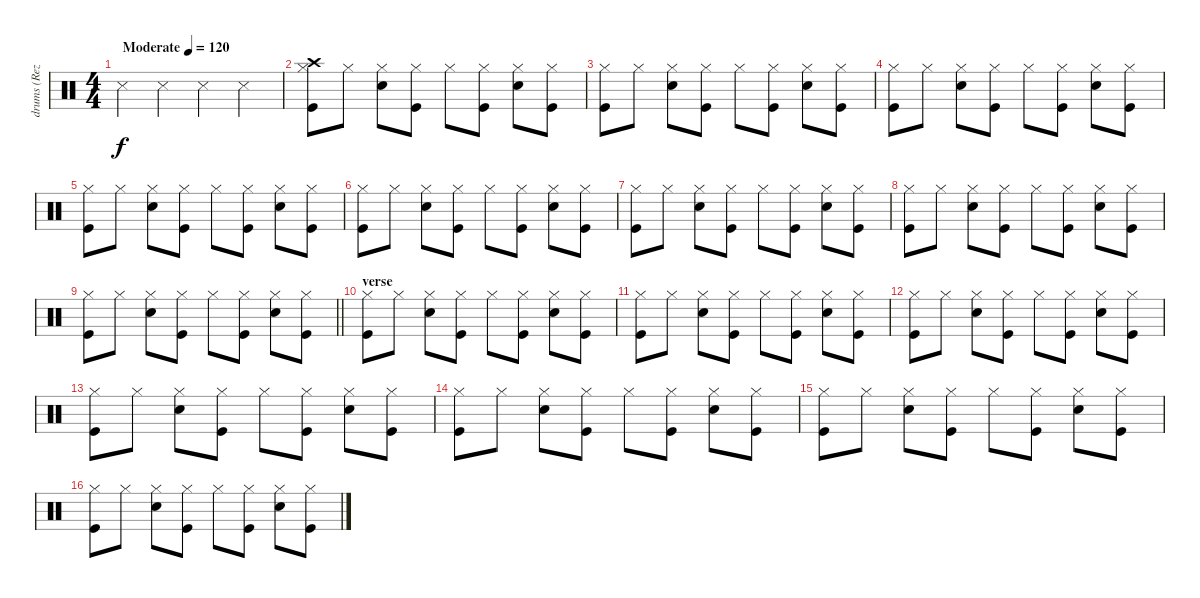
\track ("drums (Reza)" "drums (Rez") {instrument percussion}
\staff {score}
\articulation defaults
\ts (4 4)
\tempo (120 "Moderate")
\clef neutral
\ks c "Snare (side stick) 3".4{dy f} "Snare (side stick) 3".4 "Snare (side stick) 3".4 "Snare (side stick) 3".4
|
("Hi-Hat (closed)" "Kick (hit)" "Crash high (hit)").8 "Hi-Hat (closed)".8 ("Hi-Hat (closed)" "Snare (hit) 2").8 ("Hi-Hat (closed)" "Kick (hit)").8 "Hi-Hat (closed)".8 ("Hi-Hat (closed)" "Kick (hit)").8 ("Hi-Hat (closed)" "Snare (hit) 2").8 ("Hi-Hat (closed)" "Kick (hit)").8 |
("Hi-Hat (closed)" "Kick (hit)").8 "Hi-Hat (closed)".8 ("Hi-Hat (closed)" "Snare (hit) 2").8 ("Hi-Hat (closed)" "Kick (hit)").8 "Hi-Hat (closed)".8 ("Hi-Hat (closed)" "Kick (hit)").8 ("Hi-Hat (closed)" "Snare (hit) 2").8 ("Hi-Hat (closed)" "Kick (hit)").8 |
("Hi-Hat (closed)" "Kick (hit)").8 "Hi-Hat (closed)".8 ("Hi-Hat (closed)" "Snare (hit) 2").8 ("Hi-Hat (closed)" "Kick (hit)").8 "Hi-Hat (closed)".8 ("Hi-Hat (closed)" "Kick (hit)").8 ("Hi-Hat (closed)" "Snare (hit) 2").8 ("Hi-Hat (closed)" "Kick (hit)").8 |
("Hi-Hat (closed)" "Kick (hit)").8 "Hi-Hat (closed)".8 ("Hi-Hat (closed)" "Snare (hit) 2").8 ("Hi-Hat (closed)" "Kick (hit)").8 "Hi-Hat (closed)".8 ("Hi-Hat (closed)" "Kick (hit)").8 ("Hi-Hat (closed)" "Snare (hit) 2").8 ("Hi-Hat (closed)" "Kick (hit)").8 |
("Hi-Hat (closed)" "Kick (hit)").8 "Hi-Hat (closed)".8 ("Hi-Hat (closed)" "Snare (hit) 2").8 ("Hi-Hat (closed)" "Kick (hit)").8 "Hi-Hat (closed)".8 ("Hi-Hat (closed)" "Kick (hit)").8 ("Hi-Hat (closed)" "Snare (hit) 2").8 ("Hi-Hat (closed)" "Kick (hit)").8 |
("Hi-Hat (closed)" "Kick (hit)").8 "Hi-Hat (closed)".8 ("Hi-Hat (closed)" "Snare (hit) 2").8 ("Hi-Hat (closed)" "Kick (hit)").8 "Hi-Hat (closed)".8 ("Hi-Hat (closed)" "Kick (hit)").8 ("Hi-Hat (closed)" "Snare (hit) 2").8 ("Hi-Hat (closed)" "Kick (hit)").8 |
("Hi-Hat (closed)" "Kick (hit)").8 "Hi-Hat (closed)".8 ("Hi-Hat (closed)" "Snare (hit) 2").8 ("Hi-Hat (closed)" "Kick (hit)").8 "Hi-Hat (closed)".8 ("Hi-Hat (closed)" "Kick (hit)").8 ("Hi-Hat (closed)" "Snare (hit) 2").8 ("Hi-Hat (closed)" "Kick (hit)").8 |
\barLineRight lightlight
("Hi-Hat (closed)" "Kick (hit)").8 "Hi-Hat (closed)".8 ("Hi-Hat (closed)" "Snare (hit) 2").8 ("Hi-Hat (closed)" "Kick (hit)").8 "Hi-Hat (closed)".8 ("Hi-Hat (closed)" "Kick (hit)").8 ("Hi-Hat (closed)" "Snare (hit) 2").8 ("Hi-Hat (closed)" "Kick (hit)").8 |
\section ("" "verse")
("Hi-Hat (closed)" "Kick (hit)").8 "Hi-Hat (closed)".8 ("Hi-Hat (closed)" "Snare (hit) 2").8 ("Hi-Hat (closed)" "Kick (hit)").8 "Hi-Hat (closed)".8 ("Hi-Hat (closed)" "Kick (hit)").8 ("Hi-Hat (closed)" "Snare (hit) 2").8 ("Hi-Hat (closed)" "Kick (hit)").8 |
("Hi-Hat (closed)" "Kick (hit)").8 "Hi-Hat (closed)".8 ("Hi-Hat (closed)" "Snare (hit) 2").8 ("Hi-Hat (closed)" "Kick (hit)").8 "Hi-Hat (closed)".8 ("Hi-Hat (closed)" "Kick (hit)").8 ("Hi-Hat (closed)" "Snare (hit) 2").8 ("Hi-Hat (closed)" "Kick (hit)").8 |
("Hi-Hat (closed)" "Kick (hit)").8 "Hi-Hat (closed)".8 ("Hi-Hat (closed)" "Snare (hit) 2").8 ("Hi-Hat (closed)" "Kick (hit)").8 "Hi-Hat (closed)".8 ("Hi-Hat (closed)" "Kick (hit)").8 ("Hi-Hat (closed)" "Snare (hit) 2").8 ("Hi-Hat (closed)" "Kick (hit)").8 |
("Hi-Hat (closed)" "Kick (hit)").8 "Hi-Hat (closed)".8 ("Hi-Hat (closed)" "Snare (hit) 2").8 ("Hi-Hat (closed)" "Kick (hit)").8 "Hi-Hat (closed)".8 ("Hi-Hat (closed)" "Kick (hit)").8 ("Hi-Hat (closed)" "Snare (hit) 2").8 ("Hi-Hat (closed)" "Kick (hit)").8 |
("Hi-Hat (closed)" "Kick (hit)").8 "Hi-Hat (closed)".8 ("Hi-Hat (closed)" "Snare (hit) 2").8 ("Hi-Hat (closed)" "Kick (hit)").8 "Hi-Hat (closed)".8 ("Hi-Hat (closed)" "Kick (hit)").8 ("Hi-Hat (closed)" "Snare (hit) 2").8 ("Hi-Hat (closed)" "Kick (hit)").8 |
("Hi-Hat (closed)" "Kick (hit)").8 "Hi-Hat (closed)".8 ("Hi-Hat (closed)" "Snare (hit) 2").8 ("Hi-Hat (closed)" "Kick (hit)").8 "Hi-Hat (closed)".8 ("Hi-Hat (closed)" "Kick (hit)").8 ("Hi-Hat (closed)" "Snare (hit) 2").8 ("Hi-Hat (closed)" "Kick (hit)").8 |
("Hi-Hat (closed)" "Kick (hit)").8 "Hi-Hat (closed)".8 ("Hi-Hat (closed)" "Snare (hit) 2").8 ("Hi-Hat (closed)" "Kick (hit)").8 "Hi-Hat (closed)".8 ("Hi-Hat (closed)" "Kick (hit)").8 ("Hi-Hat (closed)" "Snare (hit) 2").8 ("Hi-Hat (closed)" "Kick (hit)").8
